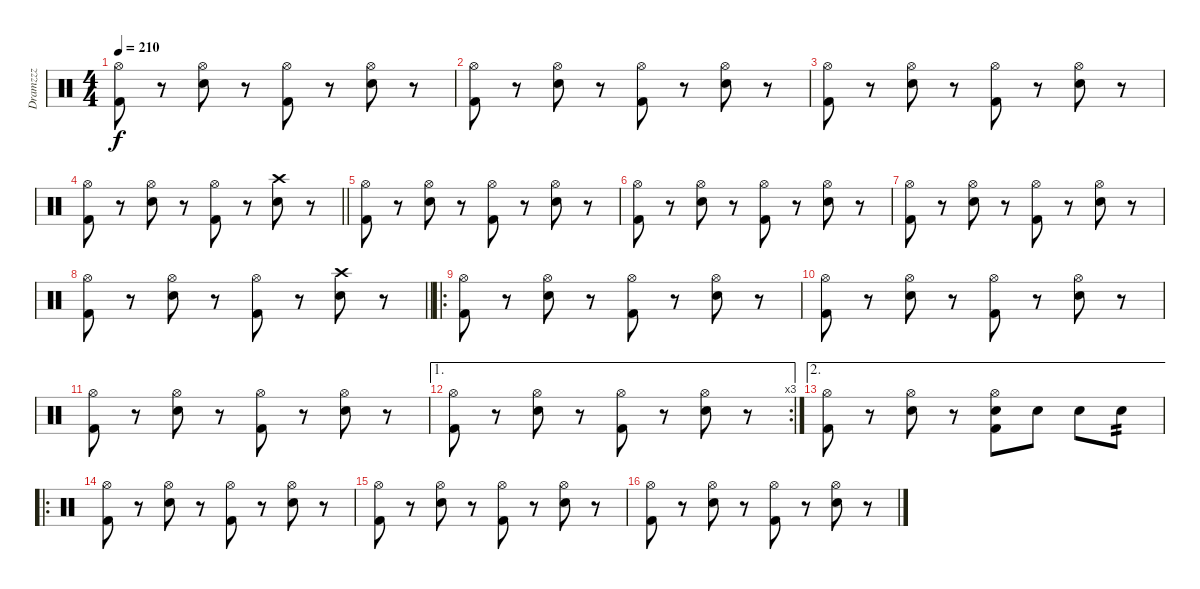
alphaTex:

\track ("Dramzzz" "Dramzzz") {instrument percussion}
\staff {score}
\articulation defaults
\ts (4 4)
\tempo 210
\clef neutral
\ks c
("Hi-Hat (open)" "Kick (hit) 2").8{dy f} r.8 ("Hi-Hat (open)" "Electric Snare (hit)").8 r.8 ("Hi-Hat (open)" "Kick (hit) 2").8 r.8 ("Hi-Hat (open)" "Electric Snare (hit)").8 r.8 |
("Hi-Hat (open)" "Kick (hit) 2").8 r.8 ("Hi-Hat (open)" "Electric Snare (hit)").8 r.8 ("Hi-Hat (open)" "Kick (hit) 2").8 r.8 ("Hi-Hat (open)" "Electric Snare (hit)").8 r.8 |
("Hi-Hat (open)" "Kick (hit) 2").8 r.8 ("Hi-Hat (open)" "Electric Snare (hit)").8 r.8 ("Hi-Hat (open)" "Kick (hit) 2").8 r.8 ("Hi-Hat (open)" "Electric Snare (hit)").8 r.8 |
\barLineRight lightlight
("Hi-Hat (open)" "Kick (hit) 2").8 r.8 ("Hi-Hat (open)" "Electric Snare (hit)").8 r.8 ("Hi-Hat (open)" "Kick (hit) 2").8 r.8 ("Crash high (hit)" "Electric Snare (hit)").8 r.8 |
("Hi-Hat (open)" "Kick (hit) 2").8 r.8 ("Hi-Hat (open)" "Electric Snare (hit)").8 r.8 ("Hi-Hat (open)" "Kick (hit) 2").8 r.8 ("Hi-Hat (open)" "Electric Snare (hit)").8 r.8 |
("Hi-Hat (open)" "Kick (hit) 2").8 r.8 ("Hi-Hat (open)" "Electric Snare (hit)").8 r.8 ("Hi-Hat (open)" "Kick (hit) 2").8 r.8 ("Hi-Hat (open)" "Electric Snare (hit)").8 r.8 |
("Hi-Hat (open)" "Kick (hit) 2").8 r.8 ("Hi-Hat (open)" "Electric Snare (hit)").8 r.8 ("Hi-Hat (open)" "Kick (hit) 2").8 r.8 ("Hi-Hat (open)" "Electric Snare (hit)").8 r.8 |
\barLineRight lightlight
("Hi-Hat (open)" "Kick (hit) 2").8 r.8 ("Hi-Hat (open)" "Electric Snare (hit)").8 r.8 ("Hi-Hat (open)" "Kick (hit) 2").8 r.8 ("Crash high (hit)" "Electric Snare (hit)").8 r.8 |
\ro
("Hi-Hat (open)" "Kick (hit) 2").8 r.8 ("Hi-Hat (open)" "Electric Snare (hit)").8 r.8 ("Hi-Hat (open)" "Kick (hit) 2").8 r.8 ("Hi-Hat (open)" "Electric Snare (hit)").8 r.8 |
("Hi-Hat (open)" "Kick (hit) 2").8 r.8 ("Hi-Hat (open)" "Electric Snare (hit)").8 r.8 ("Hi-Hat (open)" "Kick (hit) 2").8 r.8 ("Hi-Hat (open)" "Electric Snare (hit)").8 r.8 |
("Hi-Hat (open)" "Kick (hit) 2").8 r.8 ("Hi-Hat (open)" "Electric Snare (hit)").8 r.8 ("Hi-Hat (open)" "Kick (hit) 2").8 r.8 ("Hi-Hat (open)" "Electric Snare (hit)").8 r.8 |
\ae 1
\rc 3
("Hi-Hat (open)" "Kick (hit) 2").8 r.8 ("Hi-Hat (open)" "Electric Snare (hit)").8 r.8 ("Hi-Hat (open)" "Kick (hit) 2").8 r.8 ("Hi-Hat (open)" "Electric Snare (hit)").8 r.8 |
\ae 2
("Hi-Hat (open)" "Kick (hit) 2").8 r.8 ("Hi-Hat (open)" "Electric Snare (hit)").8 r.8 ("Hi-Hat (open)" "Electric Snare (hit)" "Kick (hit) 2").8 "Electric Snare (hit)".8 "Electric Snare (hit)".8 "Electric Snare (hit)".8{tp 2} |
\ro
("Hi-Hat (open)" "Kick (hit) 2").8 r.8 ("Hi-Hat (open)" "Electric Snare (hit)").8 r.8 ("Hi-Hat (open)" "Kick (hit) 2").8 r.8 ("Hi-Hat (open)" "Electric Snare (hit)").8 r.8 |
("Hi-Hat (open)" "Kick (hit) 2").8 r.8 ("Hi-Hat (open)" "Electric Snare (hit)").8 r.8 ("Hi-Hat (open)" "Kick (hit) 2").8 r.8 ("Hi-Hat (open)" "Electric Snare (hit)").8 r.8 |
("Hi-Hat (open)" "Kick (hit) 2").8 r.8 ("Hi-Hat (open)" "Electric Snare (hit)").8 r.8 ("Hi-Hat (open)" "Kick (hit) 2").8 r.8 ("Hi-Hat (open)" "Electric Snare (hit)").8 r.8
